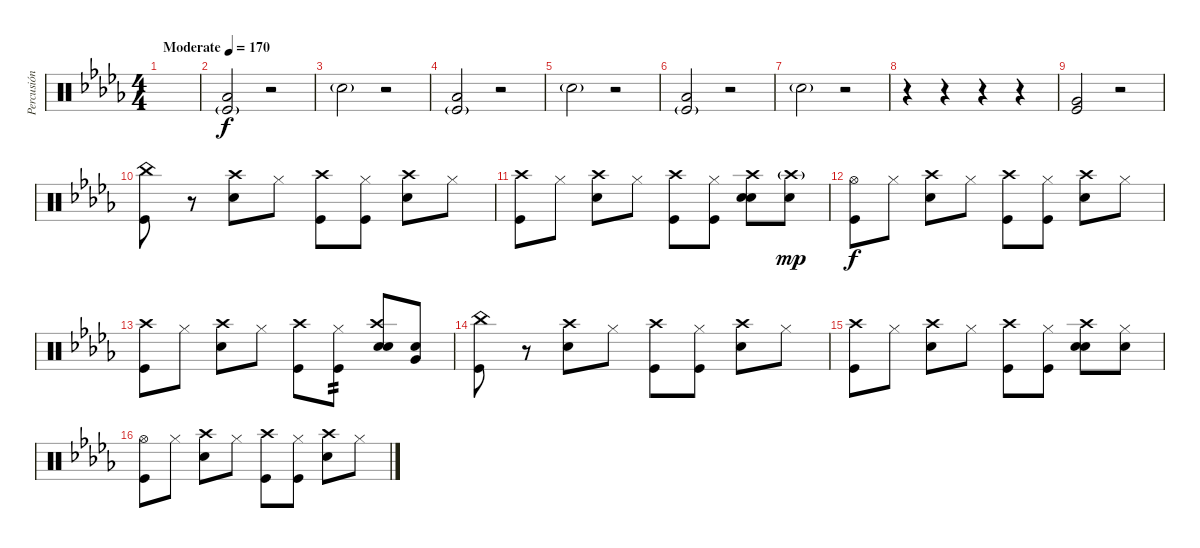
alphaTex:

\track ("Percusión" "Percusión") {instrument percussion}
\staff {score}
\articulation defaults
\ts (4 4)
\tempo (170 "Moderate")
\clef neutral
\ks db
|
("Low Floor Tom (hit)" "Kick (hit)"{g}).2 r.2 |
"Hand Clap (hit)"{g}.2 r.2 |
("Low Floor Tom (hit)" "Kick (hit)"{g}).2 r.2 |
"Hand Clap (hit)"{g}.2 r.2 |
("Low Floor Tom (hit)" "Kick (hit)"{g}).2 r.2 |
"Hand Clap (hit)"{g}.2 r.2 |
r.4 r.4 r.4 r.4 |
("Very Low Tom (hit)" "Kick (hit)").2{dy f} r.2 |
("China (hit)" "Kick (hit)").8 r.8 ("Crash high (hit)" "Electric Snare (hit)").8 "Hi-Hat (closed)".8 ("Crash high (hit)" "Kick (hit)").8 ("Hi-Hat (closed)" "Kick (hit)").8 ("Crash high (hit)" "Electric Snare (hit)").8 "Hi-Hat (closed)".8 |
("Crash high (hit)" "Kick (hit)").8 "Hi-Hat (closed)".8 ("Crash high (hit)" "Electric Snare (hit)").8 "Hi-Hat (closed)".8 ("Crash high (hit)" "Kick (hit)").8 ("Hi-Hat (closed)" "Kick (hit)").8 ("Crash high (hit)" "Electric Snare (hit)" "Hand Clap (hit)").8 ("Crash high (hit)"{g} "Hand Clap (hit)").8{dy mp} |
("Hi-Hat (open)" "Kick (hit)").8{dy f} "Hi-Hat (closed)".8 ("Crash high (hit)" "Electric Snare (hit)").8 "Hi-Hat (closed)".8 ("Crash high (hit)" "Kick (hit)").8 ("Hi-Hat (closed)" "Kick (hit)").8 ("Crash high (hit)" "Electric Snare (hit)").8 "Hi-Hat (closed)".8 |
("Crash high (hit)" "Kick (hit)").8 "Hi-Hat (closed)".8 ("Crash high (hit)" "Electric Snare (hit)").8 "Hi-Hat (closed)".8 ("Crash high (hit)" "Kick (hit)").8 ("Hi-Hat (closed)" "Kick (hit)").8{tp 2} ("Crash high (hit)" "Hand Clap (hit)" "Electric Snare (hit)").8 ("Hand Clap (hit)" "Very Low Tom (hit)").8 |
("China (hit)" "Kick (hit)").8 r.8 ("Crash high (hit)" "Electric Snare (hit)").8 "Hi-Hat (closed)".8 ("Crash high (hit)" "Kick (hit)").8 ("Hi-Hat (closed)" "Kick (hit)").8 ("Crash high (hit)" "Electric Snare (hit)").8 "Hi-Hat (closed)".8 |
("Crash high (hit)" "Kick (hit)").8 "Hi-Hat (closed)".8 ("Crash high (hit)" "Electric Snare (hit)").8 "Hi-Hat (closed)".8 ("Crash high (hit)" "Kick (hit)").8 ("Hi-Hat (closed)" "Kick (hit)").8 ("Crash high (hit)" "Hand Clap (hit)" "Electric Snare (hit)").8 ("Hi-Hat (closed)" "Hand Clap (hit)").8 |
("Hi-Hat (open)" "Kick (hit)").8 "Hi-Hat (closed)".8 ("Crash high (hit)" "Electric Snare (hit)").8 "Hi-Hat (closed)".8 ("Crash high (hit)" "Kick (hit)").8 ("Hi-Hat (closed)" "Kick (hit)").8 ("Crash high (hit)" "Electric Snare (hit)").8 "Hi-Hat (closed)".8
